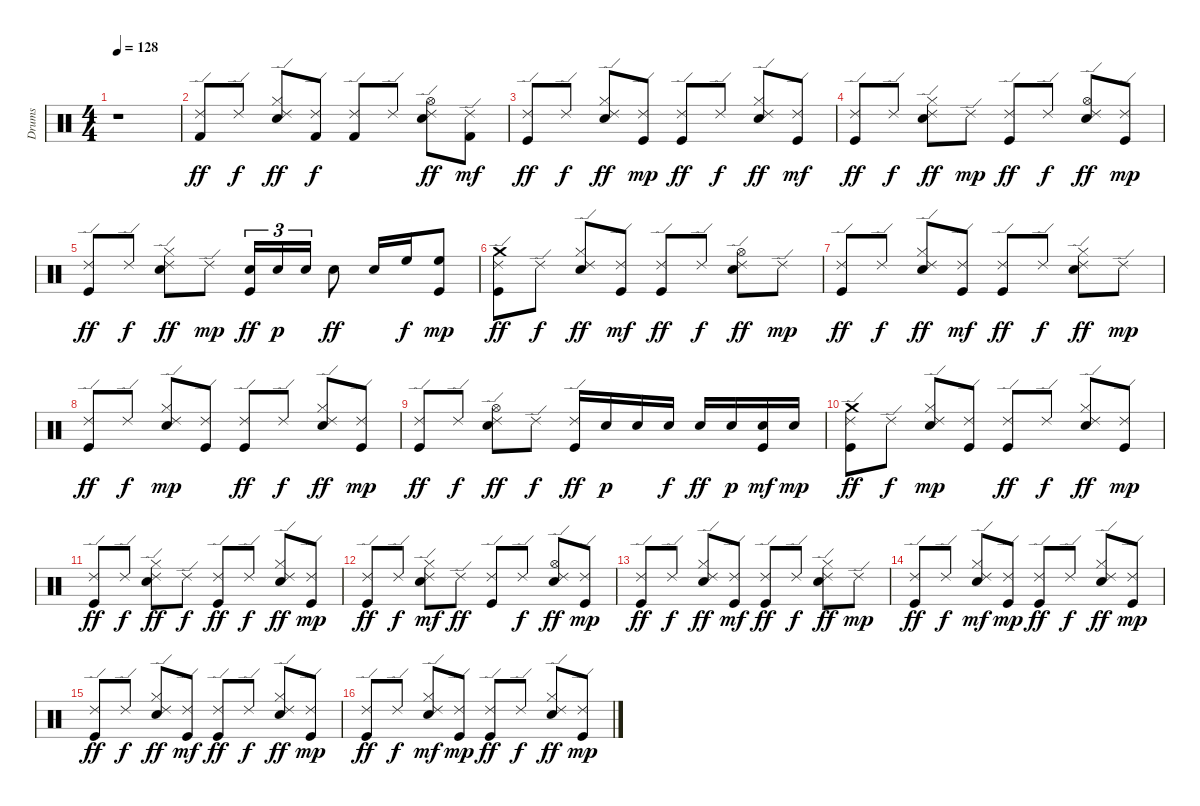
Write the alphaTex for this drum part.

\track ("Drums" "Drums") {instrument percussion}
\staff {score}
\articulation defaults
\ts (4 4)
\tempo 128
\clef neutral
\ks c
r.1{dy ff} |
("Ride (edge) 2" "Kick (hit) 2").8 "Ride (edge) 2".8{dy f} ("Ride (edge) 2" "Hi-Hat (closed)" "Snare (hit) 2").8{dy ff} ("Ride (edge) 2" "Kick (hit) 2").8{dy f} ("Ride (edge) 2" "Kick (hit) 2").8 "Ride (edge) 2".8 ("Ride (edge) 2" "Hi-Hat (open)" "Snare (hit) 2").8{dy ff} ("Ride (edge) 2" "Kick (hit) 2").8{dy mf} |
("Ride (edge) 2" "Kick (hit)").8{dy ff} "Ride (edge) 2".8{dy f} ("Electric Snare (hit)" "Hi-Hat (closed)" "Ride (edge) 2").8{dy ff} ("Ride (edge) 2" "Kick (hit)").8{dy mp} ("Ride (edge) 2" "Kick (hit)").8{dy ff} "Ride (edge) 2".8{dy f} ("Electric Snare (hit)" "Hi-Hat (closed)" "Ride (edge) 2").8{dy ff} ("Ride (edge) 2" "Kick (hit)").8{dy mf} |
("Ride (edge) 2" "Kick (hit)").8{dy ff} "Ride (edge) 2".8{dy f} ("Electric Snare (hit)" "Hi-Hat (closed)" "Ride (edge) 2").8{dy ff} "Ride (edge) 2".8{dy mp} ("Ride (edge) 2" "Kick (hit)").8{dy ff} "Ride (edge) 2".8{dy f} ("Electric Snare (hit)" "Hi-Hat (open)" "Ride (edge) 2").8{dy ff} ("Ride (edge) 2" "Kick (hit)").8{dy mp} |
("Ride (edge) 2" "Kick (hit)").8{dy ff} "Ride (edge) 2".8{dy f} ("Electric Snare (hit)" "Hi-Hat (closed)" "Ride (edge) 2").8{dy ff} "Ride (edge) 2".8{dy mp} ("Electric Snare (hit)" "Kick (hit)").16{tu (3 2) dy ff} "Electric Snare (hit)".16{tu (3 2) dy p} "Electric Snare (hit)".16{tu (3 2)} "Electric Snare (hit)".8{dy ff} "Electric Snare (hit)".16 "High Floor Tom (hit)".16{dy f} ("High Floor Tom (hit)" "Kick (hit)").8{dy mp} |
("Crash medium (hit)" "Ride (edge) 2" "Kick (hit)").8{dy ff} "Ride (edge) 2".8{dy f} ("Electric Snare (hit)" "Hi-Hat (closed)" "Ride (edge) 2").8{dy ff} ("Ride (edge) 2" "Kick (hit)").8{dy mf} ("Ride (edge) 2" "Kick (hit)").8{dy ff} "Ride (edge) 2".8{dy f} ("Electric Snare (hit)" "Hi-Hat (open)" "Ride (edge) 2").8{dy ff} "Ride (edge) 2".8{dy mp} |
("Ride (edge) 2" "Kick (hit)").8{dy ff} "Ride (edge) 2".8{dy f} ("Electric Snare (hit)" "Hi-Hat (closed)" "Ride (edge) 2").8{dy ff} ("Ride (edge) 2" "Kick (hit)").8{dy mf} ("Ride (edge) 2" "Kick (hit)").8{dy ff} "Ride (edge) 2".8{dy f} ("Electric Snare (hit)" "Hi-Hat (closed)" "Ride (edge) 2").8{dy ff} "Ride (edge) 2".8{dy mp} |
("Ride (edge) 2" "Kick (hit)").8{dy ff} "Ride (edge) 2".8{dy f} ("Electric Snare (hit)" "Hi-Hat (closed)" "Ride (edge) 2").8{dy mp} ("Ride (edge) 2" "Kick (hit)").8 ("Ride (edge) 2" "Kick (hit)").8{dy ff} "Ride (edge) 2".8{dy f} ("Electric Snare (hit)" "Hi-Hat (closed)" "Ride (edge) 2").8{dy ff} ("Ride (edge) 2" "Kick (hit)").8{dy mp} |
("Ride (edge) 2" "Kick (hit)").8{dy ff} "Ride (edge) 2".8{dy f} ("Electric Snare (hit)" "Hi-Hat (open)" "Ride (edge) 2").8{dy ff} "Ride (edge) 2".8{dy f} ("Ride (edge) 2" "Kick (hit)").16{dy ff} "Electric Snare (hit)".16{dy p} "Electric Snare (hit)".16 "Electric Snare (hit)".16{dy f} "Electric Snare (hit)".16{dy ff} "Electric Snare (hit)".16{dy p} ("Electric Snare (hit)" "Kick (hit)").16{dy mf} "Electric Snare (hit)".16{dy mp} |
("Crash medium (hit)" "Ride (edge) 2" "Kick (hit)").8{dy ff} "Ride (edge) 2".8{dy f} ("Electric Snare (hit)" "Hi-Hat (closed)" "Ride (edge) 2").8{dy mp} ("Ride (edge) 2" "Kick (hit)").8 ("Ride (edge) 2" "Kick (hit)").8{dy ff} "Ride (edge) 2".8{dy f} ("Electric Snare (hit)" "Hi-Hat (closed)" "Ride (edge) 2").8{dy ff} ("Ride (edge) 2" "Kick (hit)").8{dy mp} |
("Ride (edge) 2" "Kick (hit)").8{dy ff} "Ride (edge) 2".8{dy f} ("Electric Snare (hit)" "Hi-Hat (closed)" "Ride (edge) 2").8{dy ff} "Ride (edge) 2".8{dy f} ("Ride (edge) 2" "Kick (hit)").8{dy ff} "Ride (edge) 2".8{dy f} ("Electric Snare (hit)" "Hi-Hat (closed)" "Ride (edge) 2").8{dy ff} ("Ride (edge) 2" "Kick (hit)").8{dy mp} |
("Ride (edge) 2" "Kick (hit)").8{dy ff} "Ride (edge) 2".8{dy f} ("Electric Snare (hit)" "Hi-Hat (closed)" "Ride (edge) 2").8{dy mf} "Ride (edge) 2".8{dy ff} ("Ride (edge) 2" "Kick (hit)").8 "Ride (edge) 2".8{dy f} ("Electric Snare (hit)" "Hi-Hat (open)" "Ride (edge) 2").8{dy ff} ("Ride (edge) 2" "Kick (hit)").8{dy mp} |
("Ride (edge) 2" "Kick (hit)").8{dy ff} "Ride (edge) 2".8{dy f} ("Electric Snare (hit)" "Hi-Hat (closed)" "Ride (edge) 2").8{dy ff} ("Ride (edge) 2" "Kick (hit)").8{dy mf} ("Ride (edge) 2" "Kick (hit)").8{dy ff} "Ride (edge) 2".8{dy f} ("Electric Snare (hit)" "Hi-Hat (closed)" "Ride (edge) 2").8{dy ff} "Ride (edge) 2".8{dy mp} |
("Ride (edge) 2" "Kick (hit)").8{dy ff} "Ride (edge) 2".8{dy f} ("Electric Snare (hit)" "Hi-Hat (closed)" "Ride (edge) 2").8{dy mf} ("Ride (edge) 2" "Kick (hit)").8{dy mp} ("Ride (edge) 2" "Kick (hit)").8{dy ff} "Ride (edge) 2".8{dy f} ("Electric Snare (hit)" "Hi-Hat (closed)" "Ride (edge) 2").8{dy ff} ("Ride (edge) 2" "Kick (hit)").8{dy mp} |
("Ride (edge) 2" "Kick (hit)").8{dy ff} "Ride (edge) 2".8{dy f} ("Electric Snare (hit)" "Hi-Hat (closed)" "Ride (edge) 2").8{dy ff} ("Ride (edge) 2" "Kick (hit)").8{dy mf} ("Ride (edge) 2" "Kick (hit)").8{dy ff} "Ride (edge) 2".8{dy f} ("Electric Snare (hit)" "Hi-Hat (closed)" "Ride (edge) 2").8{dy ff} ("Ride (edge) 2" "Kick (hit)").8{dy mp} |
("Ride (edge) 2" "Kick (hit)").8{dy ff} "Ride (edge) 2".8{dy f} ("Electric Snare (hit)" "Hi-Hat (closed)" "Ride (edge) 2").8{dy mf} ("Ride (edge) 2" "Kick (hit)").8{dy mp} ("Ride (edge) 2" "Kick (hit)").8{dy ff} "Ride (edge) 2".8{dy f} ("Electric Snare (hit)" "Hi-Hat (closed)" "Ride (edge) 2").8{dy ff} ("Ride (edge) 2" "Kick (hit)").8{dy mp}
